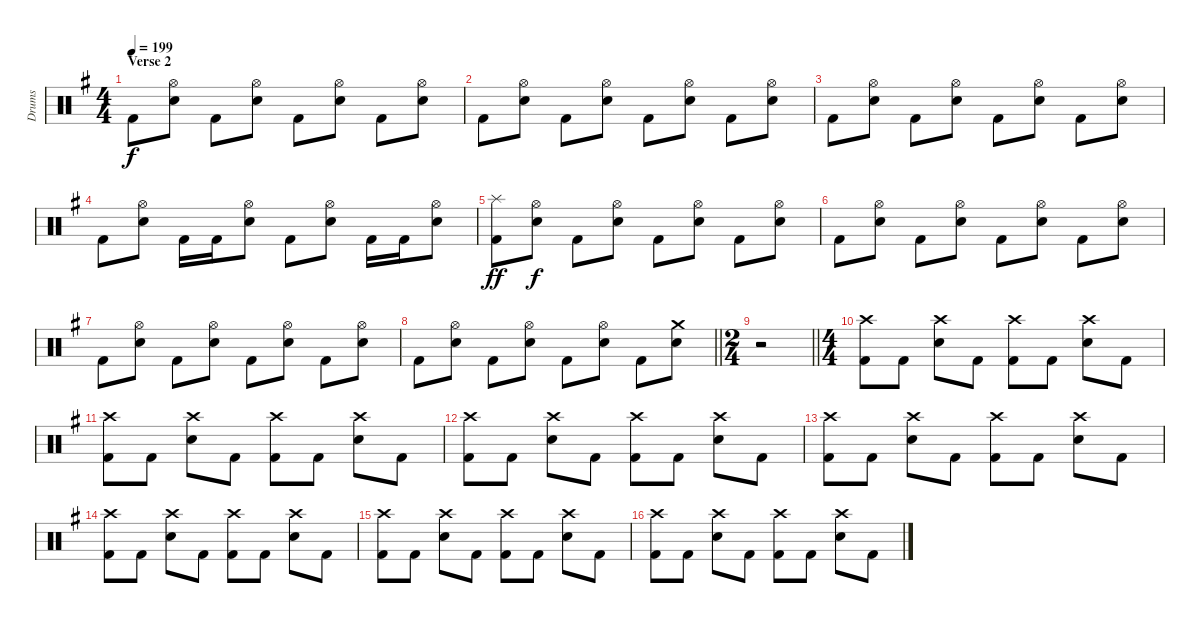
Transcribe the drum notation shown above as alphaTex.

\track ("Drums" "Drums") {instrument percussion}
\staff {score}
\articulation defaults
\ts (4 4)
\section ("" "Verse 2")
\tempo 199
\clef neutral
\ks eminor "Kick (hit) 2".8{dy f}
("Hi-Hat (open)" "Electric Snare (hit)").8 "Kick (hit) 2".8 ("Hi-Hat (open)" "Electric Snare (hit)").8 "Kick (hit) 2".8 ("Hi-Hat (open)" "Electric Snare (hit)").8 "Kick (hit) 2".8 ("Hi-Hat (open)" "Electric Snare (hit)").8 |
"Kick (hit) 2".8 ("Hi-Hat (open)" "Electric Snare (hit)").8 "Kick (hit) 2".8 ("Hi-Hat (open)" "Electric Snare (hit)").8 "Kick (hit) 2".8 ("Hi-Hat (open)" "Electric Snare (hit)").8 "Kick (hit) 2".8 ("Hi-Hat (open)" "Electric Snare (hit)").8 |
"Kick (hit) 2".8 ("Hi-Hat (open)" "Electric Snare (hit)").8 "Kick (hit) 2".8 ("Hi-Hat (open)" "Electric Snare (hit)").8 "Kick (hit) 2".8 ("Hi-Hat (open)" "Electric Snare (hit)").8 "Kick (hit) 2".8 ("Hi-Hat (open)" "Electric Snare (hit)").8 |
"Kick (hit) 2".8 ("Hi-Hat (open)" "Electric Snare (hit)").8 "Kick (hit) 2".16 "Kick (hit) 2".16 ("Hi-Hat (open)" "Electric Snare (hit)").8 "Kick (hit) 2".8 ("Hi-Hat (open)" "Electric Snare (hit)").8 "Kick (hit) 2".16 "Kick (hit) 2".16 ("Hi-Hat (open)" "Electric Snare (hit)").8 |
("Splash (hit)" "Kick (hit) 2").8{dy ff} ("Hi-Hat (open)" "Electric Snare (hit)").8{dy f} "Kick (hit) 2".8 ("Hi-Hat (open)" "Electric Snare (hit)").8 "Kick (hit) 2".8 ("Hi-Hat (open)" "Electric Snare (hit)").8 "Kick (hit) 2".8 ("Hi-Hat (open)" "Electric Snare (hit)").8 |
"Kick (hit) 2".8 ("Hi-Hat (open)" "Electric Snare (hit)").8 "Kick (hit) 2".8 ("Hi-Hat (open)" "Electric Snare (hit)").8 "Kick (hit) 2".8 ("Hi-Hat (open)" "Electric Snare (hit)").8 "Kick (hit) 2".8 ("Hi-Hat (open)" "Electric Snare (hit)").8 |
"Kick (hit) 2".8 ("Hi-Hat (open)" "Electric Snare (hit)").8 "Kick (hit) 2".8 ("Hi-Hat (open)" "Electric Snare (hit)").8 "Kick (hit) 2".8 ("Hi-Hat (open)" "Electric Snare (hit)").8 "Kick (hit) 2".8 ("Hi-Hat (open)" "Electric Snare (hit)").8 |
\barLineRight lightlight "Kick (hit) 2".8
("Hi-Hat (open)" "Electric Snare (hit)").8 "Kick (hit) 2".8 ("Hi-Hat (open)" "Electric Snare (hit)").8 "Kick (hit) 2".8 ("Hi-Hat (open)" "Electric Snare (hit)").8 "Kick (hit) 2".8 ("Crash medium (hit)" "Electric Snare (hit)").8 |
\ts (2 4)
\barLineRight lightlight
r.2 |
\ts (4 4)
("Crash high (hit)" "Kick (hit) 2").8 "Kick (hit) 2".8 ("Crash high (hit)" "Electric Snare (hit)").8 "Kick (hit) 2".8 ("Crash high (hit)" "Kick (hit) 2").8 "Kick (hit) 2".8 ("Crash high (hit)" "Electric Snare (hit)").8 "Kick (hit) 2".8 |
("Crash high (hit)" "Kick (hit) 2").8 "Kick (hit) 2".8 ("Crash high (hit)" "Electric Snare (hit)").8 "Kick (hit) 2".8 ("Crash high (hit)" "Kick (hit) 2").8 "Kick (hit) 2".8 ("Crash high (hit)" "Electric Snare (hit)").8 "Kick (hit) 2".8 |
("Crash high (hit)" "Kick (hit) 2").8 "Kick (hit) 2".8 ("Crash high (hit)" "Electric Snare (hit)").8 "Kick (hit) 2".8 ("Crash high (hit)" "Kick (hit) 2").8 "Kick (hit) 2".8 ("Crash high (hit)" "Electric Snare (hit)").8 "Kick (hit) 2".8 |
("Crash high (hit)" "Kick (hit) 2").8 "Kick (hit) 2".8 ("Crash high (hit)" "Electric Snare (hit)").8 "Kick (hit) 2".8 ("Crash high (hit)" "Kick (hit) 2").8 "Kick (hit) 2".8 ("Crash high (hit)" "Electric Snare (hit)").8 "Kick (hit) 2".8 |
("Crash high (hit)" "Kick (hit) 2").8 "Kick (hit) 2".8 ("Crash high (hit)" "Electric Snare (hit)").8 "Kick (hit) 2".8 ("Crash high (hit)" "Kick (hit) 2").8 "Kick (hit) 2".8 ("Crash high (hit)" "Electric Snare (hit)").8 "Kick (hit) 2".8 |
("Crash high (hit)" "Kick (hit) 2").8 "Kick (hit) 2".8 ("Crash high (hit)" "Electric Snare (hit)").8 "Kick (hit) 2".8 ("Crash high (hit)" "Kick (hit) 2").8 "Kick (hit) 2".8 ("Crash high (hit)" "Electric Snare (hit)").8 "Kick (hit) 2".8 |
("Crash high (hit)" "Kick (hit) 2").8 "Kick (hit) 2".8 ("Crash high (hit)" "Electric Snare (hit)").8 "Kick (hit) 2".8 ("Crash high (hit)" "Kick (hit) 2").8 "Kick (hit) 2".8 ("Crash high (hit)" "Electric Snare (hit)").8 "Kick (hit) 2".8
